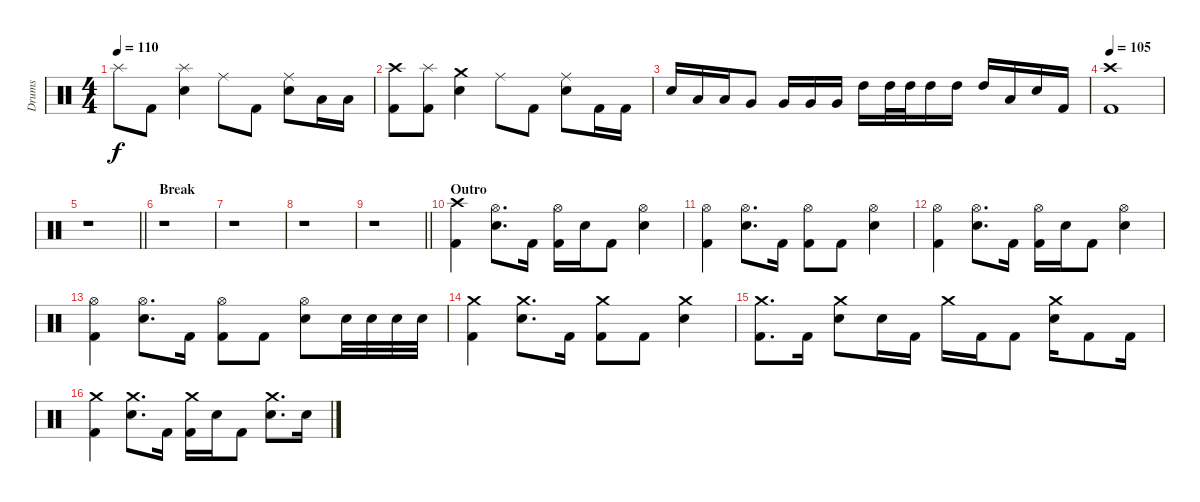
\track ("Drums" "Drums") {instrument percussion}
\staff {score}
\articulation defaults
\ts (4 4)
\tempo 110
\clef neutral
\ks c "Splash (hit)".8{dy f} "Kick (hit) 2".8
("Splash (hit)" "Snare (hit) 2").4 "Ride (middle)".8 "Kick (hit) 2".8 ("Ride (middle)" "Snare (hit) 2").8 "Low Tom (hit)".16 "Low Tom (hit)".16 |
("Crash high (hit)" "Kick (hit) 2").8 ("Splash (hit)" "Kick (hit) 2").8 ("Crash medium (hit)" "Snare (hit) 2").4 "Ride (middle)".8 "Kick (hit) 2".8 ("Ride (middle)" "Snare (hit) 2").8 "Kick (hit) 2".16 "Kick (hit) 2".16 |
"Snare (hit) 2".16 "Low Tom (hit)".16 "Low Tom (hit)".16 "Very Low Tom (hit)".8 "Very Low Tom (hit)".16 "Very Low Tom (hit)".16 "Very Low Tom (hit)".16 "High Tom (hit)".16 "High Tom (hit)".32 "High Tom (hit)".32 "High Tom (hit)".16 "High Tom (hit)".16 "High Tom (hit)".16 "Low Tom (hit)".16 "Snare (hit) 2".16 "Kick (hit) 2".16 |
\tempo 105
("Crash high (hit)" "Kick (hit) 2").1 |
\barLineRight lightlight
r.1 |
\section ("" "Break")
r.1 |
r.1 |
r.1 |
\barLineRight lightlight
r.1 |
\section ("" "Outro")
("Crash high (hit)" "Kick (hit) 2").4 ("Hi-Hat (open)" "Snare (hit) 2").8{d} "Kick (hit) 2".16 ("Hi-Hat (open)" "Kick (hit) 2").16 "Snare (hit) 2".16 "Kick (hit) 2".8 ("Hi-Hat (open)" "Snare (hit) 2").4 |
("Hi-Hat (open)" "Kick (hit) 2").4 ("Hi-Hat (open)" "Snare (hit) 2").8{d} "Kick (hit) 2".16 ("Hi-Hat (open)" "Kick (hit) 2").8 "Kick (hit) 2".8 ("Hi-Hat (open)" "Snare (hit) 2").4 |
("Hi-Hat (open)" "Kick (hit) 2").4 ("Hi-Hat (open)" "Snare (hit) 2").8{d} "Kick (hit) 2".16 ("Hi-Hat (open)" "Kick (hit) 2").16 "Snare (hit) 2".16 "Kick (hit) 2".8 ("Hi-Hat (open)" "Snare (hit) 2").4 |
("Hi-Hat (open)" "Kick (hit) 2").4 ("Hi-Hat (open)" "Snare (hit) 2").8{d} "Kick (hit) 2".16 ("Hi-Hat (open)" "Kick (hit) 2").8 "Kick (hit) 2".8 ("Hi-Hat (open)" "Snare (hit) 2").8 "Snare (hit) 2".32 "Snare (hit) 2".32 "Snare (hit) 2".32 "Snare (hit) 2".32 |
("Crash medium (hit)" "Kick (hit) 2").4 ("Crash medium (hit)" "Snare (hit) 2").8{d} "Kick (hit) 2".16 ("Crash medium (hit)" "Kick (hit) 2").8 "Kick (hit) 2".8 ("Crash medium (hit)" "Snare (hit) 2").4 |
("Crash medium (hit)" "Kick (hit) 2").8{d} "Kick (hit) 2".16 ("Crash medium (hit)" "Snare (hit) 2").8 "Snare (hit) 2".16 "Kick (hit) 2".16 "Crash medium (hit)".16 "Kick (hit) 2".16 "Kick (hit) 2".8 ("Crash medium (hit)" "Snare (hit) 2").16 "Kick (hit) 2".8 "Kick (hit) 2".16 |
("Crash medium (hit)" "Kick (hit) 2").4 ("Crash medium (hit)" "Snare (hit) 2").8{d} "Kick (hit) 2".16 ("Crash medium (hit)" "Kick (hit) 2").16 "Snare (hit) 2".16 "Kick (hit) 2".8 ("Crash medium (hit)" "Snare (hit) 2").8{d} "Snare (hit) 2".16
